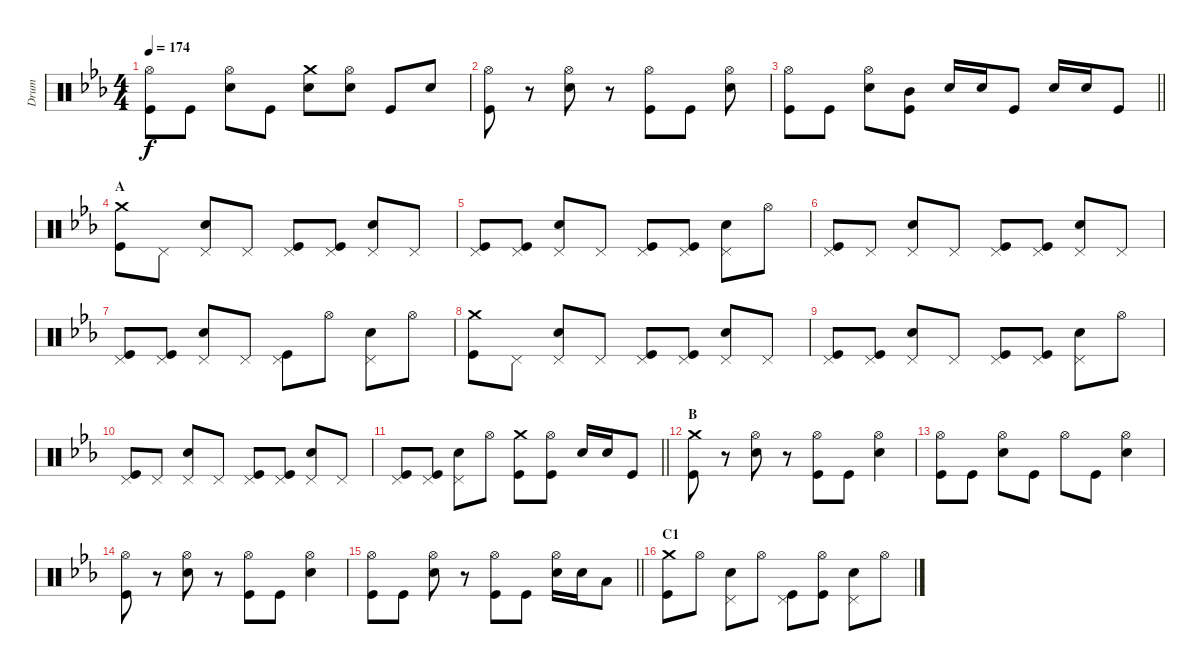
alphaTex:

\track ("Drum" "Drum") {instrument percussion}
\staff {score}
\articulation defaults
\ts (4 4)
\tempo 174
\clef neutral
\ks eb
("Hi-Hat (open)" "Kick (hit)").8{dy f} "Kick (hit)".8 ("Hi-Hat (open)" "Snare (hit) 2").8 "Kick (hit)".8 ("Crash medium (hit)" "Snare (hit) 2").8 ("Hi-Hat (open)" "Snare (hit) 2").8 "Kick (hit)".8 "Snare (hit) 2".8 |
("Hi-Hat (open)" "Kick (hit)").8 r.8 ("Hi-Hat (open)" "Snare (hit) 2").8 r.8 ("Hi-Hat (open)" "Kick (hit)").8 "Kick (hit)".8 ("Hi-Hat (open)" "Snare (hit) 2").8 |
\barLineRight lightlight
("Hi-Hat (open)" "Kick (hit)").8 "Kick (hit)".8 ("Hi-Hat (open)" "Snare (hit) 2").8 ("Mid Tom (hit)" "Kick (hit)").8 "Snare (hit) 2".16 "Snare (hit) 2".16 "Kick (hit)".8 "Snare (hit) 2".16 "Snare (hit) 2".16 "Kick (hit)".8 |
\section ("" "A")
("Crash medium (hit)" "Kick (hit)").8 "Pedal Hi-Hat (hit)".8 ("Pedal Hi-Hat (hit)" "Snare (hit) 2").8 "Pedal Hi-Hat (hit)".8 ("Pedal Hi-Hat (hit)" "Kick (hit)").8 ("Pedal Hi-Hat (hit)" "Kick (hit)").8 ("Pedal Hi-Hat (hit)" "Snare (hit) 2").8 "Pedal Hi-Hat (hit)".8 |
("Pedal Hi-Hat (hit)" "Kick (hit)").8 ("Pedal Hi-Hat (hit)" "Kick (hit)").8 ("Pedal Hi-Hat (hit)" "Snare (hit) 2").8 "Pedal Hi-Hat (hit)".8 ("Pedal Hi-Hat (hit)" "Kick (hit)").8 ("Pedal Hi-Hat (hit)" "Kick (hit)").8 ("Pedal Hi-Hat (hit)" "Snare (hit) 2").8 "Hi-Hat (open)".8 |
("Pedal Hi-Hat (hit)" "Kick (hit)").8 "Pedal Hi-Hat (hit)".8 ("Pedal Hi-Hat (hit)" "Snare (hit) 2").8 "Pedal Hi-Hat (hit)".8 ("Pedal Hi-Hat (hit)" "Kick (hit)").8 ("Pedal Hi-Hat (hit)" "Kick (hit)").8 ("Pedal Hi-Hat (hit)" "Snare (hit) 2").8 "Pedal Hi-Hat (hit)".8 |
("Pedal Hi-Hat (hit)" "Kick (hit)").8 ("Pedal Hi-Hat (hit)" "Kick (hit)").8 ("Pedal Hi-Hat (hit)" "Snare (hit) 2").8 "Pedal Hi-Hat (hit)".8 ("Pedal Hi-Hat (hit)" "Kick (hit)").8 "Hi-Hat (open)".8 ("Pedal Hi-Hat (hit)" "Snare (hit) 2").8 "Hi-Hat (open)".8 |
("Crash medium (hit)" "Kick (hit)").8 "Pedal Hi-Hat (hit)".8 ("Pedal Hi-Hat (hit)" "Snare (hit) 2").8 "Pedal Hi-Hat (hit)".8 ("Pedal Hi-Hat (hit)" "Kick (hit)").8 ("Pedal Hi-Hat (hit)" "Kick (hit)").8 ("Pedal Hi-Hat (hit)" "Snare (hit) 2").8 "Pedal Hi-Hat (hit)".8 |
("Pedal Hi-Hat (hit)" "Kick (hit)").8 ("Pedal Hi-Hat (hit)" "Kick (hit)").8 ("Pedal Hi-Hat (hit)" "Snare (hit) 2").8 "Pedal Hi-Hat (hit)".8 ("Pedal Hi-Hat (hit)" "Kick (hit)").8 ("Pedal Hi-Hat (hit)" "Kick (hit)").8 ("Pedal Hi-Hat (hit)" "Snare (hit) 2").8 "Hi-Hat (open)".8 |
("Pedal Hi-Hat (hit)" "Kick (hit)").8 "Pedal Hi-Hat (hit)".8 ("Pedal Hi-Hat (hit)" "Snare (hit) 2").8 "Pedal Hi-Hat (hit)".8 ("Pedal Hi-Hat (hit)" "Kick (hit)").8 ("Pedal Hi-Hat (hit)" "Kick (hit)").8 ("Pedal Hi-Hat (hit)" "Snare (hit) 2").8 "Pedal Hi-Hat (hit)".8 |
\barLineRight lightlight
("Pedal Hi-Hat (hit)" "Kick (hit)").8 ("Pedal Hi-Hat (hit)" "Kick (hit)").8 ("Pedal Hi-Hat (hit)" "Snare (hit) 2").8 "Hi-Hat (open)".8 ("Crash medium (hit)" "Kick (hit)").8 ("Hi-Hat (open)" "Kick (hit)").8 "Snare (hit) 2".16 "Snare (hit) 2".16 "Kick (hit)".8 |
\section ("" "B")
("Crash medium (hit)" "Kick (hit)").8 r.8 ("Hi-Hat (open)" "Snare (hit) 2").8 r.8 ("Hi-Hat (open)" "Kick (hit)").8 "Kick (hit)".8 ("Hi-Hat (open)" "Snare (hit) 2").4 |
("Hi-Hat (open)" "Kick (hit)").8 "Kick (hit)".8 ("Hi-Hat (open)" "Snare (hit) 2").8 "Kick (hit)".8 "Hi-Hat (open)".8 "Kick (hit)".8 ("Hi-Hat (open)" "Snare (hit) 2").4 |
("Hi-Hat (open)" "Kick (hit)").8 r.8 ("Hi-Hat (open)" "Snare (hit) 2").8 r.8 ("Hi-Hat (open)" "Kick (hit)").8 "Kick (hit)".8 ("Hi-Hat (open)" "Snare (hit) 2").4 |
\barLineRight lightlight
("Hi-Hat (open)" "Kick (hit)").8 "Kick (hit)".8 ("Hi-Hat (open)" "Snare (hit) 2").8 r.8 ("Hi-Hat (open)" "Kick (hit)").8 "Kick (hit)".8 ("Hi-Hat (open)" "Snare (hit) 2").16 "Snare (hit) 2".16 "Low Tom (hit)".8 |
\section ("" "C1")
("Crash medium (hit)" "Kick (hit)").8 "Hi-Hat (open)".8 ("Pedal Hi-Hat (hit)" "Snare (hit) 2").8 "Hi-Hat (open)".8 ("Pedal Hi-Hat (hit)" "Kick (hit)").8 ("Hi-Hat (open)" "Kick (hit)").8 ("Pedal Hi-Hat (hit)" "Snare (hit) 2").8 "Hi-Hat (open)".8
